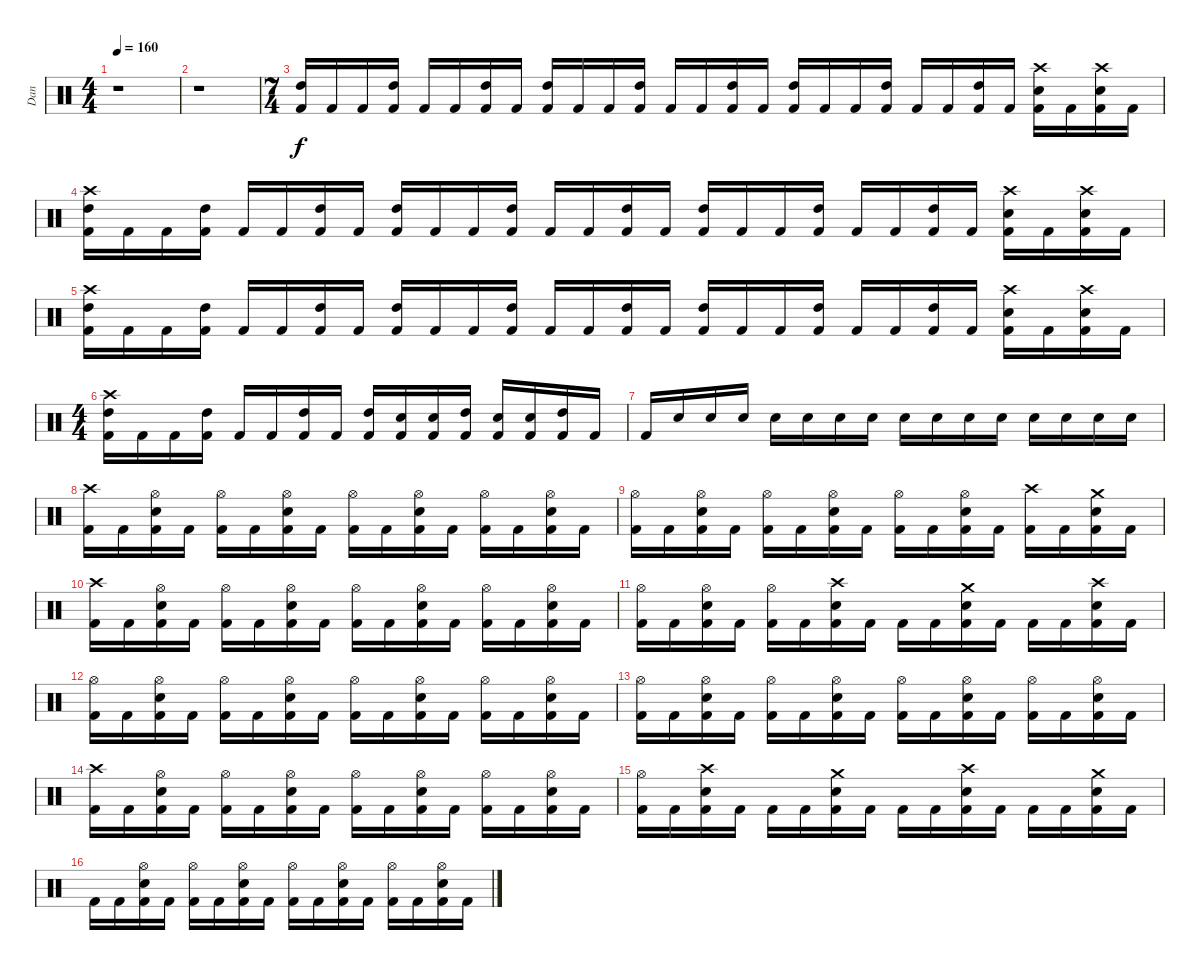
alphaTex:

\track ("Dan " "Dan ") {instrument percussion}
\staff {score}
\articulation defaults
\ts (4 4)
\tempo 160
\clef neutral
\ks c
r.1{dy f} |
r.1 |
\ts (7 4)
("Kick (hit) 2" "High Tom (hit)").16 "Kick (hit) 2".16 "Kick (hit) 2".16 ("Kick (hit) 2" "High Tom (hit)").16 "Kick (hit) 2".16 "Kick (hit) 2".16 ("Kick (hit) 2" "High Tom (hit)").16 "Kick (hit) 2".16 ("Kick (hit) 2" "High Tom (hit)").16 "Kick (hit) 2".16 "Kick (hit) 2".16 ("Kick (hit) 2" "High Tom (hit)").16 "Kick (hit) 2".16 "Kick (hit) 2".16 ("Kick (hit) 2" "High Tom (hit)").16 "Kick (hit) 2".16 ("Kick (hit) 2" "High Tom (hit)").16 "Kick (hit) 2".16 "Kick (hit) 2".16 ("Kick (hit) 2" "High Tom (hit)").16 "Kick (hit) 2".16 "Kick (hit) 2".16 ("Kick (hit) 2" "High Tom (hit)").16 "Kick (hit) 2".16 ("Metronome (bell)" "Kick (hit) 2" "Crash high (hit)").16 "Kick (hit) 2".16 ("Metronome (bell)" "Kick (hit) 2" "Crash high (hit)").16 "Kick (hit) 2".16 |
("Kick (hit) 2" "High Tom (hit)" "Crash high (hit)").16 "Kick (hit) 2".16 "Kick (hit) 2".16 ("Kick (hit) 2" "High Tom (hit)").16 "Kick (hit) 2".16 "Kick (hit) 2".16 ("Kick (hit) 2" "High Tom (hit)").16 "Kick (hit) 2".16 ("Kick (hit) 2" "High Tom (hit)").16 "Kick (hit) 2".16 "Kick (hit) 2".16 ("Kick (hit) 2" "High Tom (hit)").16 "Kick (hit) 2".16 "Kick (hit) 2".16 ("Kick (hit) 2" "High Tom (hit)").16 "Kick (hit) 2".16 ("Kick (hit) 2" "High Tom (hit)").16 "Kick (hit) 2".16 "Kick (hit) 2".16 ("Kick (hit) 2" "High Tom (hit)").16 "Kick (hit) 2".16 "Kick (hit) 2".16 ("Kick (hit) 2" "High Tom (hit)").16 "Kick (hit) 2".16 ("Metronome (bell)" "Kick (hit) 2" "Crash high (hit)").16 "Kick (hit) 2".16 ("Metronome (bell)" "Kick (hit) 2" "Crash high (hit)").16 "Kick (hit) 2".16 |
("Kick (hit) 2" "High Tom (hit)" "Crash high (hit)").16 "Kick (hit) 2".16 "Kick (hit) 2".16 ("Kick (hit) 2" "High Tom (hit)").16 "Kick (hit) 2".16 "Kick (hit) 2".16 ("Kick (hit) 2" "High Tom (hit)").16 "Kick (hit) 2".16 ("Kick (hit) 2" "High Tom (hit)").16 "Kick (hit) 2".16 "Kick (hit) 2".16 ("Kick (hit) 2" "High Tom (hit)").16 "Kick (hit) 2".16 "Kick (hit) 2".16 ("Kick (hit) 2" "High Tom (hit)").16 "Kick (hit) 2".16 ("Kick (hit) 2" "High Tom (hit)").16 "Kick (hit) 2".16 "Kick (hit) 2".16 ("Kick (hit) 2" "High Tom (hit)").16 "Kick (hit) 2".16 "Kick (hit) 2".16 ("Kick (hit) 2" "High Tom (hit)").16 "Kick (hit) 2".16 ("Metronome (bell)" "Kick (hit) 2" "Crash high (hit)").16 "Kick (hit) 2".16 ("Metronome (bell)" "Kick (hit) 2" "Crash high (hit)").16 "Kick (hit) 2".16 |
\ts (4 4)
("Kick (hit) 2" "High Tom (hit)" "Crash high (hit)").16 "Kick (hit) 2".16 "Kick (hit) 2".16 ("Kick (hit) 2" "High Tom (hit)").16 "Kick (hit) 2".16 "Kick (hit) 2".16 ("Kick (hit) 2" "High Tom (hit)").16 "Kick (hit) 2".16 ("Kick (hit) 2" "High Tom (hit)").16 ("Metronome (bell)" "Kick (hit) 2").16 ("Metronome (bell)" "Kick (hit) 2").16 ("Kick (hit) 2" "High Tom (hit)").16 ("Metronome (bell)" "Kick (hit) 2").16 ("Metronome (bell)" "Kick (hit) 2").16 ("Kick (hit) 2" "High Tom (hit)").16 "Kick (hit) 2".16 |
"Kick (hit) 2".16 "Metronome (bell)".16 "Metronome (bell)".16 "Metronome (bell)".16 "Metronome (bell)".16 "Metronome (bell)".16 "Metronome (bell)".16 "Metronome (bell)".16 "Metronome (bell)".16 "Metronome (bell)".16 "Metronome (bell)".16 "Metronome (bell)".16 "Metronome (bell)".16 "Metronome (bell)".16 "Metronome (bell)".16 "Metronome (bell)".16 |
("Kick (hit) 2" "Crash high (hit)").16 "Kick (hit) 2".16 ("Metronome (bell)" "Kick (hit) 2" "Hi-Hat (open)").16 "Kick (hit) 2".16 ("Kick (hit) 2" "Hi-Hat (open)").16 "Kick (hit) 2".16 ("Metronome (bell)" "Kick (hit) 2" "Hi-Hat (open)").16 "Kick (hit) 2".16 ("Kick (hit) 2" "Hi-Hat (open)").16 "Kick (hit) 2".16 ("Metronome (bell)" "Kick (hit) 2" "Hi-Hat (open)").16 "Kick (hit) 2".16 ("Kick (hit) 2" "Hi-Hat (open)").16 "Kick (hit) 2".16 ("Metronome (bell)" "Kick (hit) 2" "Hi-Hat (open)").16 "Kick (hit) 2".16 |
("Kick (hit) 2" "Hi-Hat (open)").16 "Kick (hit) 2".16 ("Metronome (bell)" "Kick (hit) 2" "Hi-Hat (open)").16 "Kick (hit) 2".16 ("Kick (hit) 2" "Hi-Hat (open)").16 "Kick (hit) 2".16 ("Metronome (bell)" "Kick (hit) 2" "Hi-Hat (open)").16 "Kick (hit) 2".16 ("Kick (hit) 2" "Hi-Hat (open)").16 "Kick (hit) 2".16 ("Metronome (bell)" "Kick (hit) 2" "Hi-Hat (open)").16 "Kick (hit) 2".16 ("Kick (hit) 2" "Crash high (hit)").16 "Kick (hit) 2".16 ("Metronome (bell)" "Kick (hit) 2" "Crash medium (hit)").16 "Kick (hit) 2".16 |
("Kick (hit) 2" "Crash high (hit)").16 "Kick (hit) 2".16 ("Metronome (bell)" "Kick (hit) 2" "Hi-Hat (open)").16 "Kick (hit) 2".16 ("Kick (hit) 2" "Hi-Hat (open)").16 "Kick (hit) 2".16 ("Metronome (bell)" "Kick (hit) 2" "Hi-Hat (open)").16 "Kick (hit) 2".16 ("Kick (hit) 2" "Hi-Hat (open)").16 "Kick (hit) 2".16 ("Metronome (bell)" "Kick (hit) 2" "Hi-Hat (open)").16 "Kick (hit) 2".16 ("Kick (hit) 2" "Hi-Hat (open)").16 "Kick (hit) 2".16 ("Metronome (bell)" "Kick (hit) 2" "Hi-Hat (open)").16 "Kick (hit) 2".16 |
("Kick (hit) 2" "Hi-Hat (open)").16 "Kick (hit) 2".16 ("Metronome (bell)" "Kick (hit) 2" "Hi-Hat (open)").16 "Kick (hit) 2".16 ("Kick (hit) 2" "Hi-Hat (open)").16 "Kick (hit) 2".16 ("Metronome (bell)" "Kick (hit) 2" "Crash high (hit)").16 "Kick (hit) 2".16 "Kick (hit) 2".16 "Kick (hit) 2".16 ("Metronome (bell)" "Kick (hit) 2" "Crash medium (hit)").16 "Kick (hit) 2".16 "Kick (hit) 2".16 "Kick (hit) 2".16 ("Metronome (bell)" "Kick (hit) 2" "Crash high (hit)").16 "Kick (hit) 2".16 |
("Kick (hit) 2" "Hi-Hat (open)").16 "Kick (hit) 2".16 ("Metronome (bell)" "Kick (hit) 2" "Hi-Hat (open)").16 "Kick (hit) 2".16 ("Kick (hit) 2" "Hi-Hat (open)").16 "Kick (hit) 2".16 ("Metronome (bell)" "Kick (hit) 2" "Hi-Hat (open)").16 "Kick (hit) 2".16 ("Kick (hit) 2" "Hi-Hat (open)").16 "Kick (hit) 2".16 ("Metronome (bell)" "Kick (hit) 2" "Hi-Hat (open)").16 "Kick (hit) 2".16 ("Kick (hit) 2" "Hi-Hat (open)").16 "Kick (hit) 2".16 ("Metronome (bell)" "Kick (hit) 2" "Hi-Hat (open)").16 "Kick (hit) 2".16 |
("Kick (hit) 2" "Hi-Hat (open)").16 "Kick (hit) 2".16 ("Metronome (bell)" "Kick (hit) 2" "Hi-Hat (open)").16 "Kick (hit) 2".16 ("Kick (hit) 2" "Hi-Hat (open)").16 "Kick (hit) 2".16 ("Metronome (bell)" "Kick (hit) 2" "Hi-Hat (open)").16 "Kick (hit) 2".16 ("Kick (hit) 2" "Hi-Hat (open)").16 "Kick (hit) 2".16 ("Metronome (bell)" "Kick (hit) 2" "Hi-Hat (open)").16 "Kick (hit) 2".16 ("Kick (hit) 2" "Hi-Hat (open)").16 "Kick (hit) 2".16 ("Metronome (bell)" "Kick (hit) 2" "Hi-Hat (open)").16 "Kick (hit) 2".16 |
("Kick (hit) 2" "Crash high (hit)").16 "Kick (hit) 2".16 ("Metronome (bell)" "Kick (hit) 2" "Hi-Hat (open)").16 "Kick (hit) 2".16 ("Kick (hit) 2" "Hi-Hat (open)").16 "Kick (hit) 2".16 ("Metronome (bell)" "Kick (hit) 2" "Hi-Hat (open)").16 "Kick (hit) 2".16 ("Kick (hit) 2" "Hi-Hat (open)").16 "Kick (hit) 2".16 ("Metronome (bell)" "Kick (hit) 2" "Hi-Hat (open)").16 "Kick (hit) 2".16 ("Kick (hit) 2" "Hi-Hat (open)").16 "Kick (hit) 2".16 ("Metronome (bell)" "Kick (hit) 2" "Hi-Hat (open)").16 "Kick (hit) 2".16 |
("Kick (hit) 2" "Hi-Hat (open)").16 "Kick (hit) 2".16 ("Metronome (bell)" "Kick (hit) 2" "Crash high (hit)").16 "Kick (hit) 2".16 "Kick (hit) 2".16 "Kick (hit) 2".16 ("Metronome (bell)" "Kick (hit) 2" "Crash medium (hit)").16 "Kick (hit) 2".16 "Kick (hit) 2".16 "Kick (hit) 2".16 ("Metronome (bell)" "Kick (hit) 2" "Crash high (hit)").16 "Kick (hit) 2".16 "Kick (hit) 2".16 "Kick (hit) 2".16 ("Metronome (bell)" "Kick (hit) 2" "Crash medium (hit)").16 "Kick (hit) 2".16 |
"Kick (hit) 2".16 "Kick (hit) 2".16 ("Metronome (bell)" "Kick (hit) 2" "Hi-Hat (open)").16 "Kick (hit) 2".16 ("Kick (hit) 2" "Hi-Hat (open)").16 "Kick (hit) 2".16 ("Metronome (bell)" "Kick (hit) 2" "Hi-Hat (open)").16 "Kick (hit) 2".16 ("Kick (hit) 2" "Hi-Hat (open)").16 "Kick (hit) 2".16 ("Metronome (bell)" "Kick (hit) 2" "Hi-Hat (open)").16 "Kick (hit) 2".16 ("Kick (hit) 2" "Hi-Hat (open)").16 "Kick (hit) 2".16 ("Metronome (bell)" "Kick (hit) 2" "Hi-Hat (open)").16 "Kick (hit) 2".16
